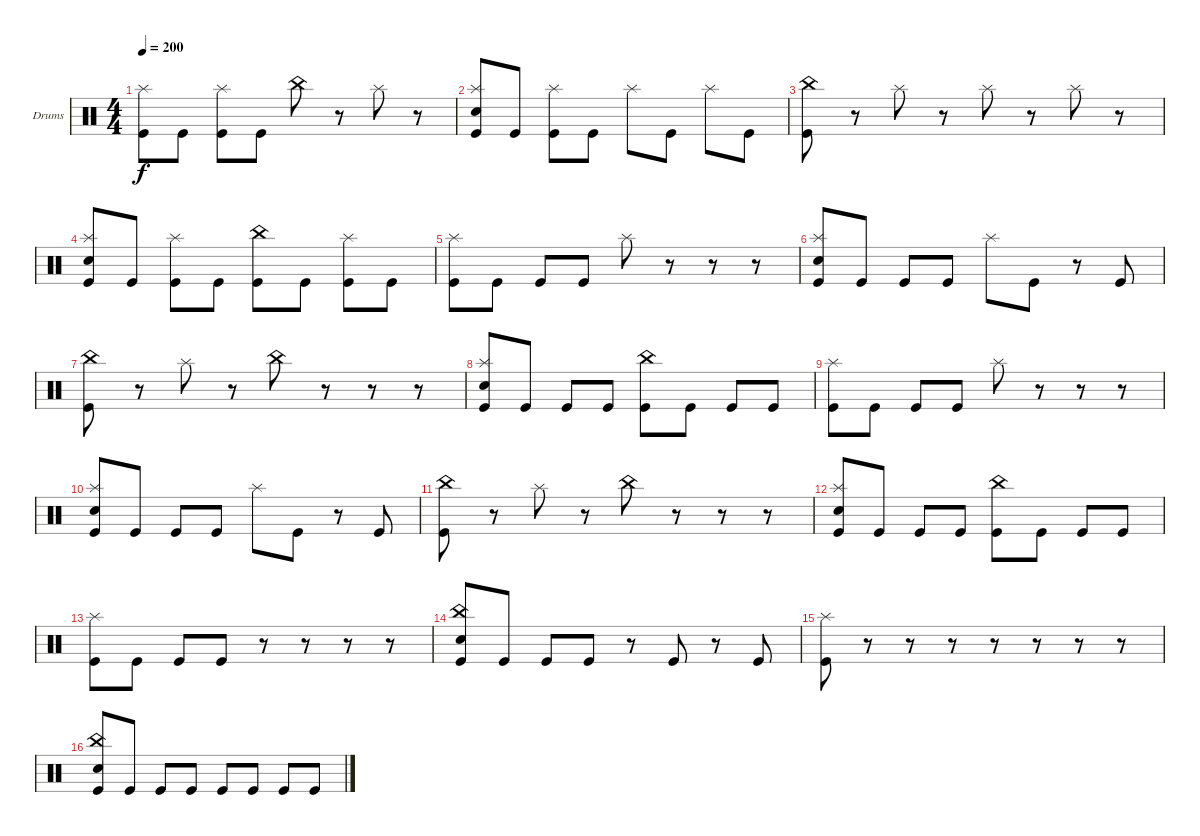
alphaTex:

\defaultSystemsLayout 4
\bracketExtendMode groupsimilarinstruments
\firstSystemTrackNameOrientation horizontal
\otherSystemsTrackNameOrientation horizontal
\track ("Drumkit" "Drums") {instrument percussion}
\staff {score}
\articulation defaults
\ts (4 4)
\tempo 200
\clef neutral
\ks c
("Kick (hit)" "Splash (hit)").8{dy f} "Kick (hit)".8 ("Kick (hit)" "Splash (hit)").8 "Kick (hit)".8 "China (hit)".8 r.8 "Splash (hit)".8 r.8 |
("Kick (hit)" "Splash (hit)" "Snare (hit) 2").8 "Kick (hit)".8 ("Kick (hit)" "Splash (hit)").8 "Kick (hit)".8 "Splash (hit)".8 "Kick (hit)".8 "Splash (hit)".8 "Kick (hit)".8 |
("Kick (hit)" "China (hit)").8 r.8 "Splash (hit)".8 r.8 "Splash (hit)".8 r.8 "Splash (hit)".8 r.8 |
("Kick (hit)" "Splash (hit)" "Snare (hit) 2").8 "Kick (hit)".8 ("Kick (hit)" "Splash (hit)").8 "Kick (hit)".8 ("Kick (hit)" "China (hit)").8 "Kick (hit)".8 ("Kick (hit)" "Splash (hit)").8 "Kick (hit)".8 |
("Kick (hit)" "Splash (hit)").8 "Kick (hit)".8 "Kick (hit)".8 "Kick (hit)".8 "Splash (hit)".8 r.8 r.8 r.8 |
("Kick (hit)" "Splash (hit)" "Snare (hit) 2").8 "Kick (hit)".8 "Kick (hit)".8 "Kick (hit)".8 "Splash (hit)".8 "Kick (hit)".8 r.8 "Kick (hit)".8 |
("Kick (hit)" "China (hit)").8 r.8 "Splash (hit)".8 r.8 "China (hit)".8 r.8 r.8 r.8 |
("Kick (hit)" "Splash (hit)" "Snare (hit) 2").8 "Kick (hit)".8 "Kick (hit)".8 "Kick (hit)".8 ("Kick (hit)" "China (hit)").8 "Kick (hit)".8 "Kick (hit)".8 "Kick (hit)".8 |
("Kick (hit)" "Splash (hit)").8 "Kick (hit)".8 "Kick (hit)".8 "Kick (hit)".8 "Splash (hit)".8 r.8 r.8 r.8 |
("Kick (hit)" "Splash (hit)" "Snare (hit) 2").8 "Kick (hit)".8 "Kick (hit)".8 "Kick (hit)".8 "Splash (hit)".8 "Kick (hit)".8 r.8 "Kick (hit)".8 |
("Kick (hit)" "China (hit)").8 r.8 "Splash (hit)".8 r.8 "China (hit)".8 r.8 r.8 r.8 |
("Kick (hit)" "Splash (hit)" "Snare (hit) 2").8 "Kick (hit)".8 "Kick (hit)".8 "Kick (hit)".8 ("Kick (hit)" "China (hit)").8 "Kick (hit)".8 "Kick (hit)".8 "Kick (hit)".8 |
("Kick (hit)" "Splash (hit)").8 "Kick (hit)".8 "Kick (hit)".8 "Kick (hit)".8 r.8 r.8 r.8 r.8 |
("Kick (hit)" "Snare (hit) 2" "China (hit)").8 "Kick (hit)".8 "Kick (hit)".8 "Kick (hit)".8 r.8 "Kick (hit)".8 r.8 "Kick (hit)".8 |
("Kick (hit)" "Splash (hit)").8 r.8 r.8 r.8 r.8 r.8 r.8 r.8 |
("Kick (hit)" "Snare (hit) 2" "China (hit)").8 "Kick (hit)".8 "Kick (hit)".8 "Kick (hit)".8 "Kick (hit)".8 "Kick (hit)".8 "Kick (hit)".8 "Kick (hit)".8
